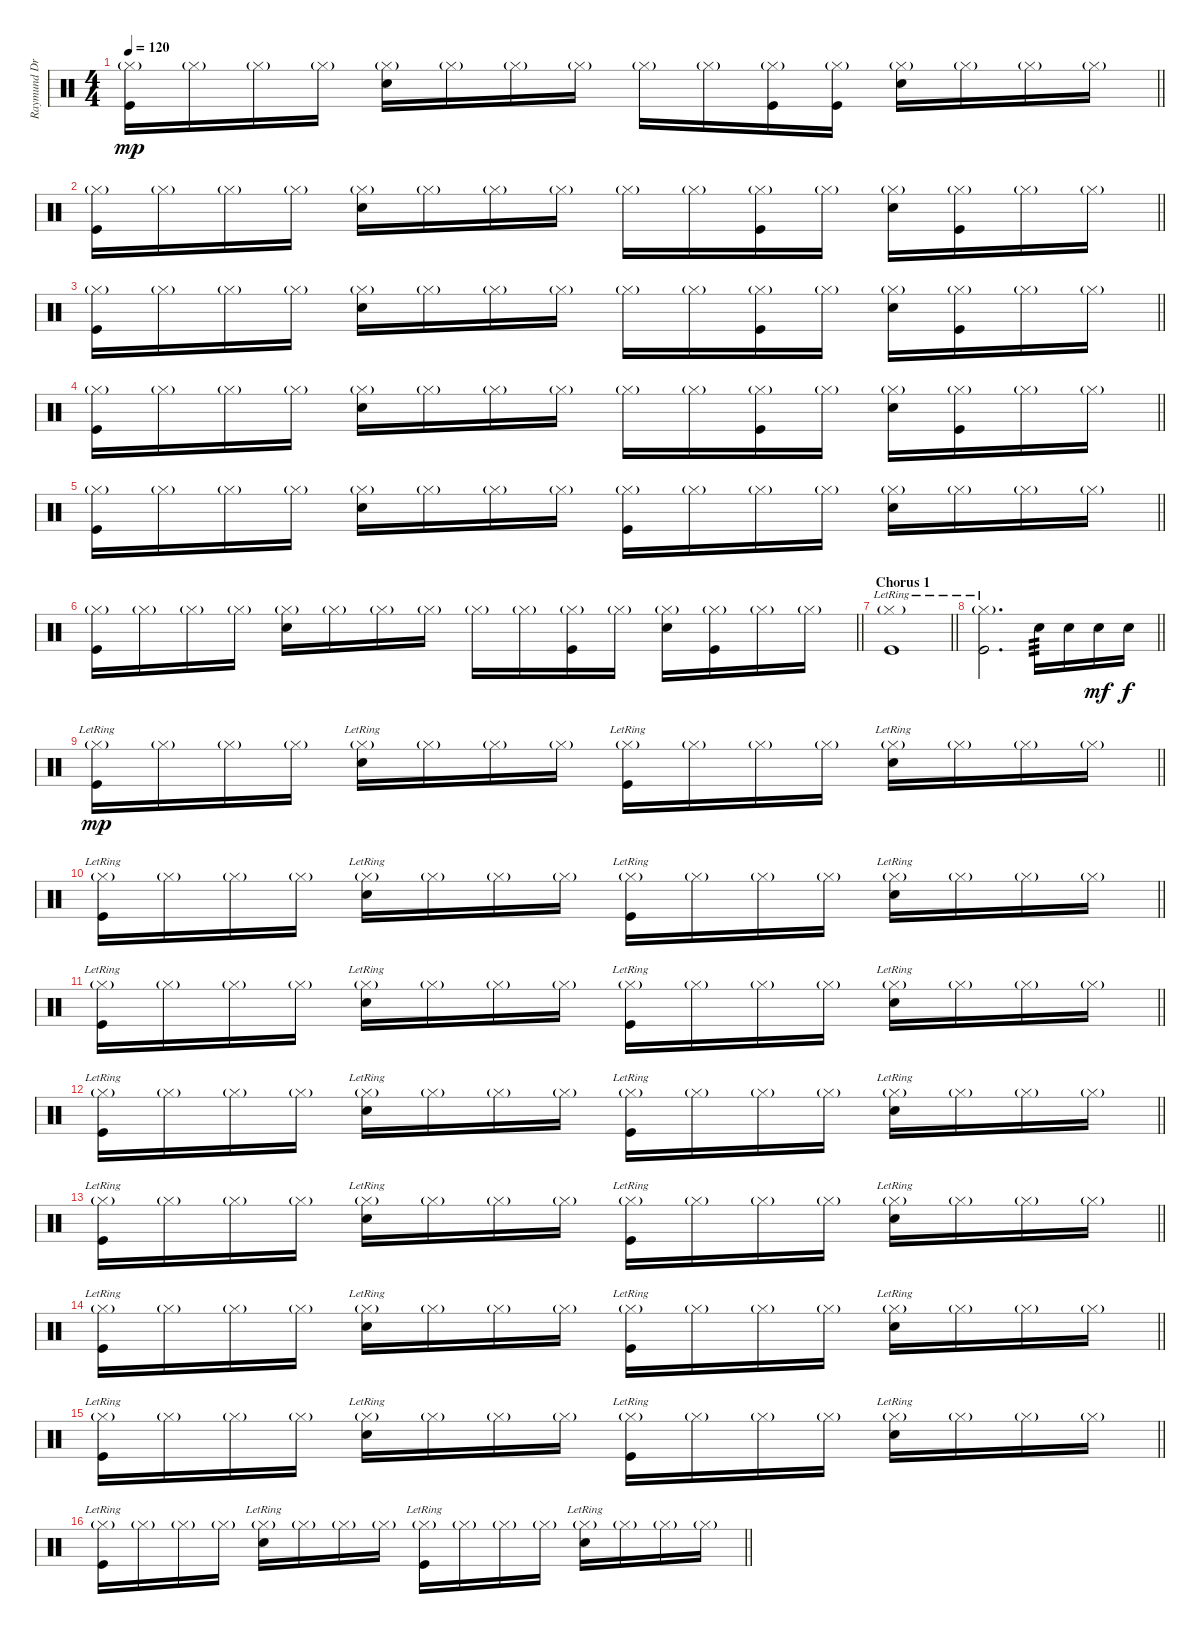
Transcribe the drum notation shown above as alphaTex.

\track ("Raymund Drums" "Raymund Dr") {instrument percussion}
\staff {score}
\articulation defaults
\ts (4 4)
\tempo 120
\clef neutral
\barLineRight lightlight
\ks c
("Hi-Hat (closed)"{g} "Kick (hit)").16{dy mp} "Hi-Hat (closed)"{g}.16 "Hi-Hat (closed)"{g}.16 "Hi-Hat (closed)"{g}.16 ("Hi-Hat (closed)"{g} "Snare (hit) 2").16 "Hi-Hat (closed)"{g}.16 "Hi-Hat (closed)"{g}.16 "Hi-Hat (closed)"{g}.16 "Hi-Hat (closed)"{g}.16 "Hi-Hat (closed)"{g}.16 ("Hi-Hat (closed)"{g} "Kick (hit)").16 ("Hi-Hat (closed)"{g} "Kick (hit)").16 ("Hi-Hat (closed)"{g} "Snare (hit) 2").16 "Hi-Hat (closed)"{g}.16 "Hi-Hat (closed)"{g}.16 "Hi-Hat (closed)"{g}.16 |
\barLineRight lightlight
("Hi-Hat (closed)"{g} "Kick (hit)").16 "Hi-Hat (closed)"{g}.16 "Hi-Hat (closed)"{g}.16 "Hi-Hat (closed)"{g}.16 ("Hi-Hat (closed)"{g} "Snare (hit) 2").16 "Hi-Hat (closed)"{g}.16 "Hi-Hat (closed)"{g}.16 "Hi-Hat (closed)"{g}.16 "Hi-Hat (closed)"{g}.16 "Hi-Hat (closed)"{g}.16 ("Hi-Hat (closed)"{g} "Kick (hit)").16 "Hi-Hat (closed)"{g}.16 ("Hi-Hat (closed)"{g} "Snare (hit) 2").16 ("Hi-Hat (closed)"{g} "Kick (hit)").16 "Hi-Hat (closed)"{g}.16 "Hi-Hat (closed)"{g}.16 |
\barLineRight lightlight
("Hi-Hat (closed)"{g} "Kick (hit)").16 "Hi-Hat (closed)"{g}.16 "Hi-Hat (closed)"{g}.16 "Hi-Hat (closed)"{g}.16 ("Hi-Hat (closed)"{g} "Snare (hit) 2").16 "Hi-Hat (closed)"{g}.16 "Hi-Hat (closed)"{g}.16 "Hi-Hat (closed)"{g}.16 "Hi-Hat (closed)"{g}.16 "Hi-Hat (closed)"{g}.16 ("Hi-Hat (closed)"{g} "Kick (hit)").16 "Hi-Hat (closed)"{g}.16 ("Hi-Hat (closed)"{g} "Snare (hit) 2").16 ("Hi-Hat (closed)"{g} "Kick (hit)").16 "Hi-Hat (closed)"{g}.16 "Hi-Hat (closed)"{g}.16 |
\barLineRight lightlight
("Hi-Hat (closed)"{g} "Kick (hit)").16 "Hi-Hat (closed)"{g}.16 "Hi-Hat (closed)"{g}.16 "Hi-Hat (closed)"{g}.16 ("Hi-Hat (closed)"{g} "Snare (hit) 2").16 "Hi-Hat (closed)"{g}.16 "Hi-Hat (closed)"{g}.16 "Hi-Hat (closed)"{g}.16 "Hi-Hat (closed)"{g}.16 "Hi-Hat (closed)"{g}.16 ("Hi-Hat (closed)"{g} "Kick (hit)").16 "Hi-Hat (closed)"{g}.16 ("Hi-Hat (closed)"{g} "Snare (hit) 2").16 ("Hi-Hat (closed)"{g} "Kick (hit)").16 "Hi-Hat (closed)"{g}.16 "Hi-Hat (closed)"{g}.16 |
\barLineRight lightlight
("Hi-Hat (closed)"{g} "Kick (hit)").16 "Hi-Hat (closed)"{g}.16 "Hi-Hat (closed)"{g}.16 "Hi-Hat (closed)"{g}.16 ("Hi-Hat (closed)"{g} "Snare (hit) 2").16 "Hi-Hat (closed)"{g}.16 "Hi-Hat (closed)"{g}.16 "Hi-Hat (closed)"{g}.16 ("Hi-Hat (closed)"{g} "Kick (hit)").16 "Hi-Hat (closed)"{g}.16 "Hi-Hat (closed)"{g}.16 "Hi-Hat (closed)"{g}.16 ("Hi-Hat (closed)"{g} "Snare (hit) 2").16 "Hi-Hat (closed)"{g}.16 "Hi-Hat (closed)"{g}.16 "Hi-Hat (closed)"{g}.16 |
\barLineRight lightlight
("Hi-Hat (closed)"{g} "Kick (hit)").16 "Hi-Hat (closed)"{g}.16 "Hi-Hat (closed)"{g}.16 "Hi-Hat (closed)"{g}.16 ("Hi-Hat (closed)"{g} "Snare (hit) 2").16 "Hi-Hat (closed)"{g}.16 "Hi-Hat (closed)"{g}.16 "Hi-Hat (closed)"{g}.16 "Hi-Hat (closed)"{g}.16 "Hi-Hat (closed)"{g}.16 ("Hi-Hat (closed)"{g} "Kick (hit)").16 "Hi-Hat (closed)"{g}.16 ("Hi-Hat (closed)"{g} "Snare (hit) 2").16 ("Hi-Hat (closed)"{g} "Kick (hit)").16 "Hi-Hat (closed)"{g}.16 "Hi-Hat (closed)"{g}.16 |
\section ("" "Chorus 1")
\barLineRight lightlight
("Hi-Hat (closed)"{g} "Kick (hit)"{lr}).1 |
\barLineRight lightlight
("Hi-Hat (closed)"{g} "Kick (hit)"{lr}).2{d} "Snare (hit) 2".16{tp 3} "Snare (hit) 2".16 "Snare (hit) 2".16{dy mf} "Snare (hit) 2".16{dy f} |
\barLineRight lightlight
("Hi-Hat (closed)"{g} "Kick (hit)"{lr}).16{dy mp} "Hi-Hat (closed)"{g}.16 "Hi-Hat (closed)"{g}.16 "Hi-Hat (closed)"{g}.16 ("Hi-Hat (closed)"{g} "Snare (hit) 2"{lr}).16 "Hi-Hat (closed)"{g}.16 "Hi-Hat (closed)"{g}.16 "Hi-Hat (closed)"{g}.16 ("Hi-Hat (closed)"{g} "Kick (hit)"{lr}).16 "Hi-Hat (closed)"{g}.16 "Hi-Hat (closed)"{g}.16 "Hi-Hat (closed)"{g}.16 ("Hi-Hat (closed)"{g} "Snare (hit) 2"{lr}).16 "Hi-Hat (closed)"{g}.16 "Hi-Hat (closed)"{g}.16 "Hi-Hat (closed)"{g}.16 |
\barLineRight lightlight
("Hi-Hat (closed)"{g} "Kick (hit)"{lr}).16 "Hi-Hat (closed)"{g}.16 "Hi-Hat (closed)"{g}.16 "Hi-Hat (closed)"{g}.16 ("Hi-Hat (closed)"{g} "Snare (hit) 2"{lr}).16 "Hi-Hat (closed)"{g}.16 "Hi-Hat (closed)"{g}.16 "Hi-Hat (closed)"{g}.16 ("Hi-Hat (closed)"{g} "Kick (hit)"{lr}).16 "Hi-Hat (closed)"{g}.16 "Hi-Hat (closed)"{g}.16 "Hi-Hat (closed)"{g}.16 ("Hi-Hat (closed)"{g} "Snare (hit) 2"{lr}).16 "Hi-Hat (closed)"{g}.16 "Hi-Hat (closed)"{g}.16 "Hi-Hat (closed)"{g}.16 |
\barLineRight lightlight
("Hi-Hat (closed)"{g} "Kick (hit)"{lr}).16 "Hi-Hat (closed)"{g}.16 "Hi-Hat (closed)"{g}.16 "Hi-Hat (closed)"{g}.16 ("Hi-Hat (closed)"{g} "Snare (hit) 2"{lr}).16 "Hi-Hat (closed)"{g}.16 "Hi-Hat (closed)"{g}.16 "Hi-Hat (closed)"{g}.16 ("Hi-Hat (closed)"{g} "Kick (hit)"{lr}).16 "Hi-Hat (closed)"{g}.16 "Hi-Hat (closed)"{g}.16 "Hi-Hat (closed)"{g}.16 ("Hi-Hat (closed)"{g} "Snare (hit) 2"{lr}).16 "Hi-Hat (closed)"{g}.16 "Hi-Hat (closed)"{g}.16 "Hi-Hat (closed)"{g}.16 |
\barLineRight lightlight
("Hi-Hat (closed)"{g} "Kick (hit)"{lr}).16 "Hi-Hat (closed)"{g}.16 "Hi-Hat (closed)"{g}.16 "Hi-Hat (closed)"{g}.16 ("Hi-Hat (closed)"{g} "Snare (hit) 2"{lr}).16 "Hi-Hat (closed)"{g}.16 "Hi-Hat (closed)"{g}.16 "Hi-Hat (closed)"{g}.16 ("Hi-Hat (closed)"{g} "Kick (hit)"{lr}).16 "Hi-Hat (closed)"{g}.16 "Hi-Hat (closed)"{g}.16 "Hi-Hat (closed)"{g}.16 ("Hi-Hat (closed)"{g} "Snare (hit) 2"{lr}).16 "Hi-Hat (closed)"{g}.16 "Hi-Hat (closed)"{g}.16 "Hi-Hat (closed)"{g}.16 |
\barLineRight lightlight
("Hi-Hat (closed)"{g} "Kick (hit)"{lr}).16 "Hi-Hat (closed)"{g}.16 "Hi-Hat (closed)"{g}.16 "Hi-Hat (closed)"{g}.16 ("Hi-Hat (closed)"{g} "Snare (hit) 2"{lr}).16 "Hi-Hat (closed)"{g}.16 "Hi-Hat (closed)"{g}.16 "Hi-Hat (closed)"{g}.16 ("Hi-Hat (closed)"{g} "Kick (hit)"{lr}).16 "Hi-Hat (closed)"{g}.16 "Hi-Hat (closed)"{g}.16 "Hi-Hat (closed)"{g}.16 ("Hi-Hat (closed)"{g} "Snare (hit) 2"{lr}).16 "Hi-Hat (closed)"{g}.16 "Hi-Hat (closed)"{g}.16 "Hi-Hat (closed)"{g}.16 |
\barLineRight lightlight
("Hi-Hat (closed)"{g} "Kick (hit)"{lr}).16 "Hi-Hat (closed)"{g}.16 "Hi-Hat (closed)"{g}.16 "Hi-Hat (closed)"{g}.16 ("Hi-Hat (closed)"{g} "Snare (hit) 2"{lr}).16 "Hi-Hat (closed)"{g}.16 "Hi-Hat (closed)"{g}.16 "Hi-Hat (closed)"{g}.16 ("Hi-Hat (closed)"{g} "Kick (hit)"{lr}).16 "Hi-Hat (closed)"{g}.16 "Hi-Hat (closed)"{g}.16 "Hi-Hat (closed)"{g}.16 ("Hi-Hat (closed)"{g} "Snare (hit) 2"{lr}).16 "Hi-Hat (closed)"{g}.16 "Hi-Hat (closed)"{g}.16 "Hi-Hat (closed)"{g}.16 |
\barLineRight lightlight
("Hi-Hat (closed)"{g} "Kick (hit)"{lr}).16 "Hi-Hat (closed)"{g}.16 "Hi-Hat (closed)"{g}.16 "Hi-Hat (closed)"{g}.16 ("Hi-Hat (closed)"{g} "Snare (hit) 2"{lr}).16 "Hi-Hat (closed)"{g}.16 "Hi-Hat (closed)"{g}.16 "Hi-Hat (closed)"{g}.16 ("Hi-Hat (closed)"{g} "Kick (hit)"{lr}).16 "Hi-Hat (closed)"{g}.16 "Hi-Hat (closed)"{g}.16 "Hi-Hat (closed)"{g}.16 ("Hi-Hat (closed)"{g} "Snare (hit) 2"{lr}).16 "Hi-Hat (closed)"{g}.16 "Hi-Hat (closed)"{g}.16 "Hi-Hat (closed)"{g}.16 |
\barLineRight lightlight
("Hi-Hat (closed)"{g} "Kick (hit)"{lr}).16 "Hi-Hat (closed)"{g}.16 "Hi-Hat (closed)"{g}.16 "Hi-Hat (closed)"{g}.16 ("Hi-Hat (closed)"{g} "Snare (hit) 2"{lr}).16 "Hi-Hat (closed)"{g}.16 "Hi-Hat (closed)"{g}.16 "Hi-Hat (closed)"{g}.16 ("Hi-Hat (closed)"{g} "Kick (hit)"{lr}).16 "Hi-Hat (closed)"{g}.16 "Hi-Hat (closed)"{g}.16 "Hi-Hat (closed)"{g}.16 ("Hi-Hat (closed)"{g} "Snare (hit) 2"{lr}).16 "Hi-Hat (closed)"{g}.16 "Hi-Hat (closed)"{g}.16 "Hi-Hat (closed)"{g}.16
